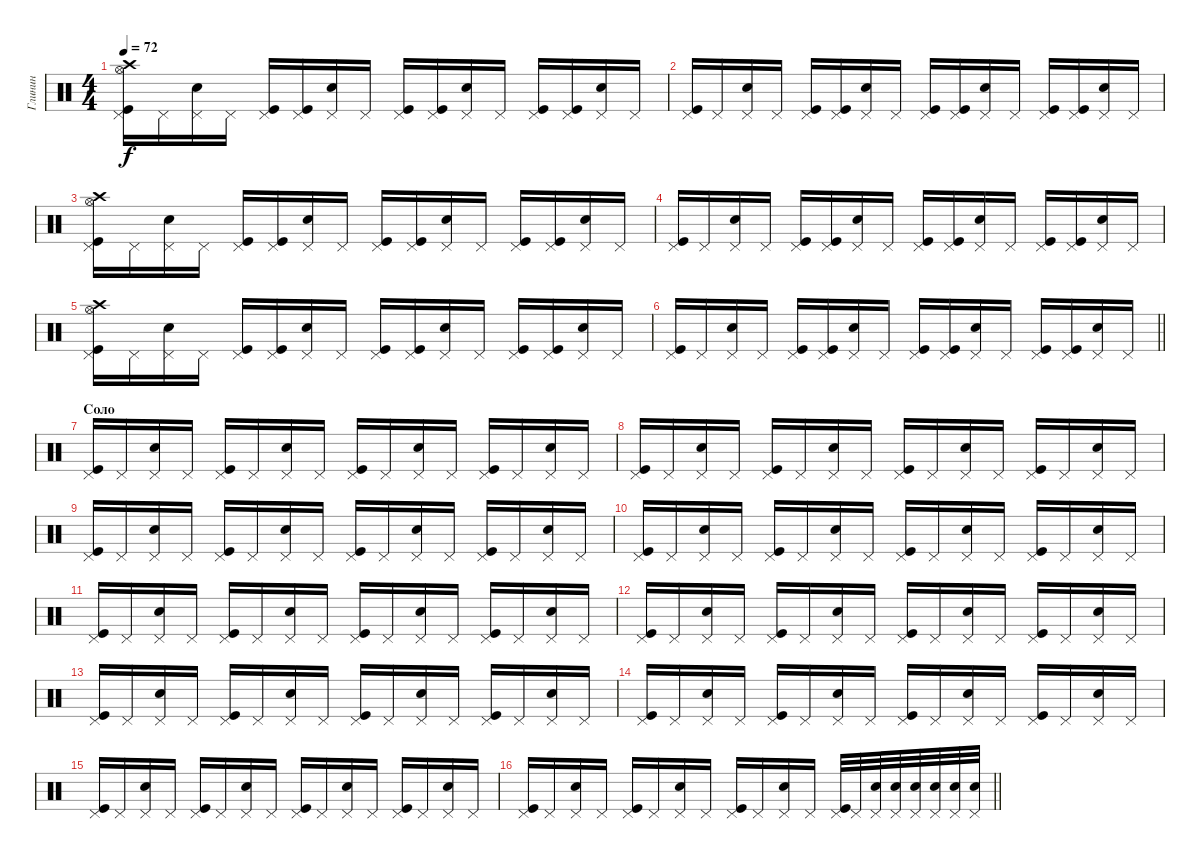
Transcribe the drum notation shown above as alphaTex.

\track ("Глинин" "Глинин") {instrument percussion}
\staff {score}
\articulation defaults
\ts (4 4)
\tempo 72
\clef neutral
\ks c
("Pedal Hi-Hat (hit)" "Kick (hit)" "Crash high (hit)" "Hi-Hat (open)").16{dy f} "Pedal Hi-Hat (hit)".16 ("Pedal Hi-Hat (hit)" "Snare (hit) 2").16 "Pedal Hi-Hat (hit)".16 ("Pedal Hi-Hat (hit)" "Kick (hit)").16 ("Pedal Hi-Hat (hit)" "Kick (hit)").16 ("Pedal Hi-Hat (hit)" "Snare (hit) 2").16 "Pedal Hi-Hat (hit)".16 ("Pedal Hi-Hat (hit)" "Kick (hit)").16 ("Pedal Hi-Hat (hit)" "Kick (hit)").16 ("Pedal Hi-Hat (hit)" "Snare (hit) 2").16 "Pedal Hi-Hat (hit)".16 ("Pedal Hi-Hat (hit)" "Kick (hit)").16 ("Pedal Hi-Hat (hit)" "Kick (hit)").16 ("Pedal Hi-Hat (hit)" "Snare (hit) 2").16 "Pedal Hi-Hat (hit)".16 |
("Pedal Hi-Hat (hit)" "Kick (hit)").16 "Pedal Hi-Hat (hit)".16 ("Pedal Hi-Hat (hit)" "Snare (hit) 2").16 "Pedal Hi-Hat (hit)".16 ("Pedal Hi-Hat (hit)" "Kick (hit)").16 ("Pedal Hi-Hat (hit)" "Kick (hit)").16 ("Pedal Hi-Hat (hit)" "Snare (hit) 2").16 "Pedal Hi-Hat (hit)".16 ("Pedal Hi-Hat (hit)" "Kick (hit)").16 ("Pedal Hi-Hat (hit)" "Kick (hit)").16 ("Pedal Hi-Hat (hit)" "Snare (hit) 2").16 "Pedal Hi-Hat (hit)".16 ("Pedal Hi-Hat (hit)" "Kick (hit)").16 ("Pedal Hi-Hat (hit)" "Kick (hit)").16 ("Pedal Hi-Hat (hit)" "Snare (hit) 2").16 "Pedal Hi-Hat (hit)".16 |
("Pedal Hi-Hat (hit)" "Kick (hit)" "Crash high (hit)" "Hi-Hat (open)").16 "Pedal Hi-Hat (hit)".16 ("Pedal Hi-Hat (hit)" "Snare (hit) 2").16 "Pedal Hi-Hat (hit)".16 ("Pedal Hi-Hat (hit)" "Kick (hit)").16 ("Pedal Hi-Hat (hit)" "Kick (hit)").16 ("Pedal Hi-Hat (hit)" "Snare (hit) 2").16 "Pedal Hi-Hat (hit)".16 ("Pedal Hi-Hat (hit)" "Kick (hit)").16 ("Pedal Hi-Hat (hit)" "Kick (hit)").16 ("Pedal Hi-Hat (hit)" "Snare (hit) 2").16 "Pedal Hi-Hat (hit)".16 ("Pedal Hi-Hat (hit)" "Kick (hit)").16 ("Pedal Hi-Hat (hit)" "Kick (hit)").16 ("Pedal Hi-Hat (hit)" "Snare (hit) 2").16 "Pedal Hi-Hat (hit)".16 |
("Pedal Hi-Hat (hit)" "Kick (hit)").16 "Pedal Hi-Hat (hit)".16 ("Pedal Hi-Hat (hit)" "Snare (hit) 2").16 "Pedal Hi-Hat (hit)".16 ("Pedal Hi-Hat (hit)" "Kick (hit)").16 ("Pedal Hi-Hat (hit)" "Kick (hit)").16 ("Pedal Hi-Hat (hit)" "Snare (hit) 2").16 "Pedal Hi-Hat (hit)".16 ("Pedal Hi-Hat (hit)" "Kick (hit)").16 ("Pedal Hi-Hat (hit)" "Kick (hit)").16 ("Pedal Hi-Hat (hit)" "Snare (hit) 2").16 "Pedal Hi-Hat (hit)".16 ("Pedal Hi-Hat (hit)" "Kick (hit)").16 ("Pedal Hi-Hat (hit)" "Kick (hit)").16 ("Pedal Hi-Hat (hit)" "Snare (hit) 2").16 "Pedal Hi-Hat (hit)".16 |
("Pedal Hi-Hat (hit)" "Kick (hit)" "Crash high (hit)" "Hi-Hat (open)").16 "Pedal Hi-Hat (hit)".16 ("Pedal Hi-Hat (hit)" "Snare (hit) 2").16 "Pedal Hi-Hat (hit)".16 ("Pedal Hi-Hat (hit)" "Kick (hit)").16 ("Pedal Hi-Hat (hit)" "Kick (hit)").16 ("Pedal Hi-Hat (hit)" "Snare (hit) 2").16 "Pedal Hi-Hat (hit)".16 ("Pedal Hi-Hat (hit)" "Kick (hit)").16 ("Pedal Hi-Hat (hit)" "Kick (hit)").16 ("Pedal Hi-Hat (hit)" "Snare (hit) 2").16 "Pedal Hi-Hat (hit)".16 ("Pedal Hi-Hat (hit)" "Kick (hit)").16 ("Pedal Hi-Hat (hit)" "Kick (hit)").16 ("Pedal Hi-Hat (hit)" "Snare (hit) 2").16 "Pedal Hi-Hat (hit)".16 |
\barLineRight lightlight
("Pedal Hi-Hat (hit)" "Kick (hit)").16 "Pedal Hi-Hat (hit)".16 ("Pedal Hi-Hat (hit)" "Snare (hit) 2").16 "Pedal Hi-Hat (hit)".16 ("Pedal Hi-Hat (hit)" "Kick (hit)").16 ("Pedal Hi-Hat (hit)" "Kick (hit)").16 ("Pedal Hi-Hat (hit)" "Snare (hit) 2").16 "Pedal Hi-Hat (hit)".16 ("Pedal Hi-Hat (hit)" "Kick (hit)").16 ("Pedal Hi-Hat (hit)" "Kick (hit)").16 ("Pedal Hi-Hat (hit)" "Snare (hit) 2").16 "Pedal Hi-Hat (hit)".16 ("Pedal Hi-Hat (hit)" "Kick (hit)").16 ("Pedal Hi-Hat (hit)" "Kick (hit)").16 ("Pedal Hi-Hat (hit)" "Snare (hit) 2").16 "Pedal Hi-Hat (hit)".16 |
\section ("" "Соло")
("Pedal Hi-Hat (hit)" "Kick (hit)").16 "Pedal Hi-Hat (hit)".16 ("Pedal Hi-Hat (hit)" "Snare (hit) 2").16 "Pedal Hi-Hat (hit)".16 ("Pedal Hi-Hat (hit)" "Kick (hit)").16 "Pedal Hi-Hat (hit)".16 ("Pedal Hi-Hat (hit)" "Snare (hit) 2").16 "Pedal Hi-Hat (hit)".16 ("Pedal Hi-Hat (hit)" "Kick (hit)").16 "Pedal Hi-Hat (hit)".16 ("Pedal Hi-Hat (hit)" "Snare (hit) 2").16 "Pedal Hi-Hat (hit)".16 ("Pedal Hi-Hat (hit)" "Kick (hit)").16 "Pedal Hi-Hat (hit)".16 ("Pedal Hi-Hat (hit)" "Snare (hit) 2").16 "Pedal Hi-Hat (hit)".16 |
("Pedal Hi-Hat (hit)" "Kick (hit)").16 "Pedal Hi-Hat (hit)".16 ("Pedal Hi-Hat (hit)" "Snare (hit) 2").16 "Pedal Hi-Hat (hit)".16 ("Pedal Hi-Hat (hit)" "Kick (hit)").16 "Pedal Hi-Hat (hit)".16 ("Pedal Hi-Hat (hit)" "Snare (hit) 2").16 "Pedal Hi-Hat (hit)".16 ("Pedal Hi-Hat (hit)" "Kick (hit)").16 "Pedal Hi-Hat (hit)".16 ("Pedal Hi-Hat (hit)" "Snare (hit) 2").16 "Pedal Hi-Hat (hit)".16 ("Pedal Hi-Hat (hit)" "Kick (hit)").16 "Pedal Hi-Hat (hit)".16 ("Pedal Hi-Hat (hit)" "Snare (hit) 2").16 "Pedal Hi-Hat (hit)".16 |
("Pedal Hi-Hat (hit)" "Kick (hit)").16 "Pedal Hi-Hat (hit)".16 ("Pedal Hi-Hat (hit)" "Snare (hit) 2").16 "Pedal Hi-Hat (hit)".16 ("Pedal Hi-Hat (hit)" "Kick (hit)").16 "Pedal Hi-Hat (hit)".16 ("Pedal Hi-Hat (hit)" "Snare (hit) 2").16 "Pedal Hi-Hat (hit)".16 ("Pedal Hi-Hat (hit)" "Kick (hit)").16 "Pedal Hi-Hat (hit)".16 ("Pedal Hi-Hat (hit)" "Snare (hit) 2").16 "Pedal Hi-Hat (hit)".16 ("Pedal Hi-Hat (hit)" "Kick (hit)").16 "Pedal Hi-Hat (hit)".16 ("Pedal Hi-Hat (hit)" "Snare (hit) 2").16 "Pedal Hi-Hat (hit)".16 |
("Pedal Hi-Hat (hit)" "Kick (hit)").16 "Pedal Hi-Hat (hit)".16 ("Pedal Hi-Hat (hit)" "Snare (hit) 2").16 "Pedal Hi-Hat (hit)".16 ("Pedal Hi-Hat (hit)" "Kick (hit)").16 "Pedal Hi-Hat (hit)".16 ("Pedal Hi-Hat (hit)" "Snare (hit) 2").16 "Pedal Hi-Hat (hit)".16 ("Pedal Hi-Hat (hit)" "Kick (hit)").16 "Pedal Hi-Hat (hit)".16 ("Pedal Hi-Hat (hit)" "Snare (hit) 2").16 "Pedal Hi-Hat (hit)".16 ("Pedal Hi-Hat (hit)" "Kick (hit)").16 "Pedal Hi-Hat (hit)".16 ("Pedal Hi-Hat (hit)" "Snare (hit) 2").16 "Pedal Hi-Hat (hit)".16 |
("Pedal Hi-Hat (hit)" "Kick (hit)").16 "Pedal Hi-Hat (hit)".16 ("Pedal Hi-Hat (hit)" "Snare (hit) 2").16 "Pedal Hi-Hat (hit)".16 ("Pedal Hi-Hat (hit)" "Kick (hit)").16 "Pedal Hi-Hat (hit)".16 ("Pedal Hi-Hat (hit)" "Snare (hit) 2").16 "Pedal Hi-Hat (hit)".16 ("Pedal Hi-Hat (hit)" "Kick (hit)").16 "Pedal Hi-Hat (hit)".16 ("Pedal Hi-Hat (hit)" "Snare (hit) 2").16 "Pedal Hi-Hat (hit)".16 ("Pedal Hi-Hat (hit)" "Kick (hit)").16 "Pedal Hi-Hat (hit)".16 ("Pedal Hi-Hat (hit)" "Snare (hit) 2").16 "Pedal Hi-Hat (hit)".16 |
("Pedal Hi-Hat (hit)" "Kick (hit)").16 "Pedal Hi-Hat (hit)".16 ("Pedal Hi-Hat (hit)" "Snare (hit) 2").16 "Pedal Hi-Hat (hit)".16 ("Pedal Hi-Hat (hit)" "Kick (hit)").16 "Pedal Hi-Hat (hit)".16 ("Pedal Hi-Hat (hit)" "Snare (hit) 2").16 "Pedal Hi-Hat (hit)".16 ("Pedal Hi-Hat (hit)" "Kick (hit)").16 "Pedal Hi-Hat (hit)".16 ("Pedal Hi-Hat (hit)" "Snare (hit) 2").16 "Pedal Hi-Hat (hit)".16 ("Pedal Hi-Hat (hit)" "Kick (hit)").16 "Pedal Hi-Hat (hit)".16 ("Pedal Hi-Hat (hit)" "Snare (hit) 2").16 "Pedal Hi-Hat (hit)".16 |
("Pedal Hi-Hat (hit)" "Kick (hit)").16 "Pedal Hi-Hat (hit)".16 ("Pedal Hi-Hat (hit)" "Snare (hit) 2").16 "Pedal Hi-Hat (hit)".16 ("Pedal Hi-Hat (hit)" "Kick (hit)").16 "Pedal Hi-Hat (hit)".16 ("Pedal Hi-Hat (hit)" "Snare (hit) 2").16 "Pedal Hi-Hat (hit)".16 ("Pedal Hi-Hat (hit)" "Kick (hit)").16 "Pedal Hi-Hat (hit)".16 ("Pedal Hi-Hat (hit)" "Snare (hit) 2").16 "Pedal Hi-Hat (hit)".16 ("Pedal Hi-Hat (hit)" "Kick (hit)").16 "Pedal Hi-Hat (hit)".16 ("Pedal Hi-Hat (hit)" "Snare (hit) 2").16 "Pedal Hi-Hat (hit)".16 |
("Pedal Hi-Hat (hit)" "Kick (hit)").16 "Pedal Hi-Hat (hit)".16 ("Pedal Hi-Hat (hit)" "Snare (hit) 2").16 "Pedal Hi-Hat (hit)".16 ("Pedal Hi-Hat (hit)" "Kick (hit)").16 "Pedal Hi-Hat (hit)".16 ("Pedal Hi-Hat (hit)" "Snare (hit) 2").16 "Pedal Hi-Hat (hit)".16 ("Pedal Hi-Hat (hit)" "Kick (hit)").16 "Pedal Hi-Hat (hit)".16 ("Pedal Hi-Hat (hit)" "Snare (hit) 2").16 "Pedal Hi-Hat (hit)".16 ("Pedal Hi-Hat (hit)" "Kick (hit)").16 "Pedal Hi-Hat (hit)".16 ("Pedal Hi-Hat (hit)" "Snare (hit) 2").16 "Pedal Hi-Hat (hit)".16 |
("Pedal Hi-Hat (hit)" "Kick (hit)").16 "Pedal Hi-Hat (hit)".16 ("Pedal Hi-Hat (hit)" "Snare (hit) 2").16 "Pedal Hi-Hat (hit)".16 ("Pedal Hi-Hat (hit)" "Kick (hit)").16 "Pedal Hi-Hat (hit)".16 ("Pedal Hi-Hat (hit)" "Snare (hit) 2").16 "Pedal Hi-Hat (hit)".16 ("Pedal Hi-Hat (hit)" "Kick (hit)").16 "Pedal Hi-Hat (hit)".16 ("Pedal Hi-Hat (hit)" "Snare (hit) 2").16 "Pedal Hi-Hat (hit)".16 ("Pedal Hi-Hat (hit)" "Kick (hit)").16 "Pedal Hi-Hat (hit)".16 ("Pedal Hi-Hat (hit)" "Snare (hit) 2").16 "Pedal Hi-Hat (hit)".16 |
\barLineRight lightlight
("Pedal Hi-Hat (hit)" "Kick (hit)").16 "Pedal Hi-Hat (hit)".16 ("Pedal Hi-Hat (hit)" "Snare (hit) 2").16 "Pedal Hi-Hat (hit)".16 ("Pedal Hi-Hat (hit)" "Kick (hit)").16 "Pedal Hi-Hat (hit)".16 ("Pedal Hi-Hat (hit)" "Snare (hit) 2").16 "Pedal Hi-Hat (hit)".16 ("Pedal Hi-Hat (hit)" "Kick (hit)").16 "Pedal Hi-Hat (hit)".16 ("Pedal Hi-Hat (hit)" "Snare (hit) 2").16 "Pedal Hi-Hat (hit)".16 ("Pedal Hi-Hat (hit)" "Kick (hit)").32 "Pedal Hi-Hat (hit)".32 ("Pedal Hi-Hat (hit)" "Snare (hit) 2").32 ("Pedal Hi-Hat (hit)" "Snare (hit) 2").32 ("Pedal Hi-Hat (hit)" "Snare (hit) 2").32 ("Pedal Hi-Hat (hit)" "Snare (hit) 2").32 ("Pedal Hi-Hat (hit)" "Snare (hit) 2").32 ("Pedal Hi-Hat (hit)" "Snare (hit) 2").32
